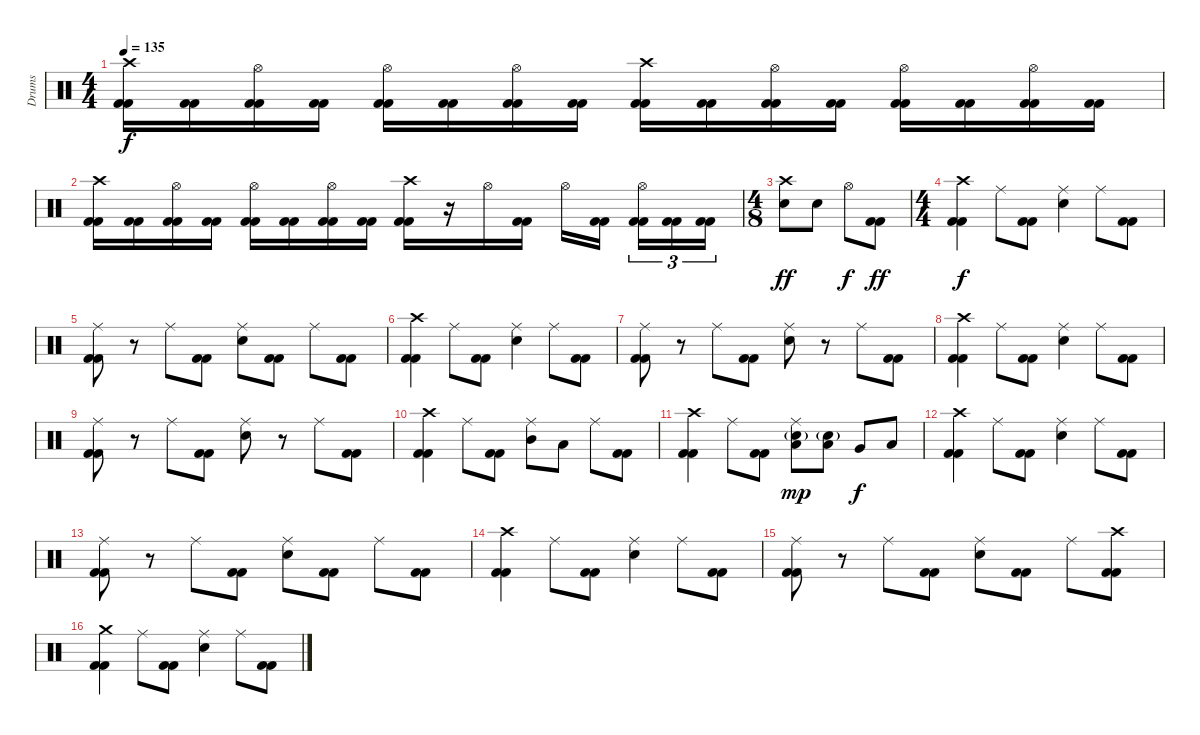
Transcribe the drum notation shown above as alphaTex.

\track ("Drums" "Drums") {instrument percussion}
\staff {score}
\articulation defaults
\ts (4 4)
\tempo 135
\clef neutral
\ks c
("Crash high (hit)" "Kick (hit) 2" "Kick (hit) 2").16{dy f} ("Kick (hit) 2" "Kick (hit) 2").16 ("Hi-Hat (open)" "Kick (hit) 2" "Kick (hit) 2").16 ("Kick (hit) 2" "Kick (hit) 2").16 ("Hi-Hat (open)" "Kick (hit) 2" "Kick (hit) 2").16 ("Kick (hit) 2" "Kick (hit) 2").16 ("Hi-Hat (open)" "Kick (hit) 2" "Kick (hit) 2").16 ("Kick (hit) 2" "Kick (hit) 2").16 ("Crash high (hit)" "Kick (hit) 2" "Kick (hit) 2").16 ("Kick (hit) 2" "Kick (hit) 2").16 ("Hi-Hat (open)" "Kick (hit) 2" "Kick (hit) 2").16 ("Kick (hit) 2" "Kick (hit) 2").16 ("Hi-Hat (open)" "Kick (hit) 2" "Kick (hit) 2").16 ("Kick (hit) 2" "Kick (hit) 2").16 ("Hi-Hat (open)" "Kick (hit) 2" "Kick (hit) 2").16 ("Kick (hit) 2" "Kick (hit) 2").16 |
("Crash high (hit)" "Kick (hit) 2" "Kick (hit) 2").16 ("Kick (hit) 2" "Kick (hit) 2").16 ("Hi-Hat (open)" "Kick (hit) 2" "Kick (hit) 2").16 ("Kick (hit) 2" "Kick (hit) 2").16 ("Hi-Hat (open)" "Kick (hit) 2" "Kick (hit) 2").16 ("Kick (hit) 2" "Kick (hit) 2").16 ("Hi-Hat (open)" "Kick (hit) 2" "Kick (hit) 2").16 ("Kick (hit) 2" "Kick (hit) 2").16 ("Crash high (hit)" "Kick (hit) 2" "Kick (hit) 2").16 r.16 "Hi-Hat (open)".16 ("Kick (hit) 2" "Kick (hit) 2").16 "Hi-Hat (open)".16 ("Kick (hit) 2" "Kick (hit) 2").16{beam splitsecondary} ("Hi-Hat (open)" "Kick (hit) 2" "Kick (hit) 2").16{tu (3 2)} ("Kick (hit) 2" "Kick (hit) 2").16{tu (3 2)} ("Kick (hit) 2" "Kick (hit) 2").16{tu (3 2)} |
\ts (4 8)
("Crash high (hit)" "Electric Snare (hit)").8{dy ff} "Electric Snare (hit)".8 "Hi-Hat (open)".8{dy f} ("Kick (hit) 2" "Kick (hit) 2").8{dy ff} |
\ts (4 4)
("Crash high (hit)" "Kick (hit) 2" "Kick (hit) 2").4{dy f} "Ride (middle)".8 ("Kick (hit) 2" "Kick (hit) 2").8 ("Ride (middle)" "Electric Snare (hit)").4 "Ride (middle)".8 ("Kick (hit) 2" "Kick (hit) 2").8 |
("Ride (middle)" "Kick (hit) 2" "Kick (hit) 2").8 r.8 "Ride (middle)".8 ("Kick (hit) 2" "Kick (hit) 2").8 ("Ride (middle)" "Electric Snare (hit)").8 ("Kick (hit) 2" "Kick (hit) 2").8 "Ride (middle)".8 ("Kick (hit) 2" "Kick (hit) 2").8 |
("Crash high (hit)" "Kick (hit) 2" "Kick (hit) 2").4 "Ride (middle)".8 ("Kick (hit) 2" "Kick (hit) 2").8 ("Ride (middle)" "Electric Snare (hit)").4 "Ride (middle)".8 ("Kick (hit) 2" "Kick (hit) 2").8 |
("Ride (middle)" "Kick (hit) 2" "Kick (hit) 2").8 r.8 "Ride (middle)".8 ("Kick (hit) 2" "Kick (hit) 2").8 ("Ride (middle)" "Electric Snare (hit)").8 r.8 "Ride (middle)".8 ("Kick (hit) 2" "Kick (hit) 2").8 |
("Crash high (hit)" "Kick (hit) 2" "Kick (hit) 2").4 "Ride (middle)".8 ("Kick (hit) 2" "Kick (hit) 2").8 ("Ride (middle)" "Electric Snare (hit)").4 "Ride (middle)".8 ("Kick (hit) 2" "Kick (hit) 2").8 |
("Ride (middle)" "Kick (hit) 2" "Kick (hit) 2").8 r.8 "Ride (middle)".8 ("Kick (hit) 2" "Kick (hit) 2").8 ("Ride (middle)" "Electric Snare (hit)").8 r.8 "Ride (middle)".8 ("Kick (hit) 2" "Kick (hit) 2").8 |
("Crash high (hit)" "Kick (hit) 2" "Kick (hit) 2").4 "Ride (middle)".8 ("Kick (hit) 2" "Kick (hit) 2").8 ("Ride (middle)" "Mid Tom (hit)").8 "Low Tom (hit)".8 "Ride (middle)".8 ("Kick (hit) 2" "Kick (hit) 2").8 |
("Crash high (hit)" "Kick (hit) 2" "Kick (hit) 2").4 "Ride (middle)".8 ("Kick (hit) 2" "Kick (hit) 2").8 ("Ride (middle)" "Electric Snare (hit)"{g} "Low Tom (hit)").8{dy mp} ("Electric Snare (hit)"{g} "Low Tom (hit)").8 "Very Low Tom (hit)".8{dy f} "Low Floor Tom (hit)".8 |
("Crash high (hit)" "Kick (hit) 2" "Kick (hit) 2").4 "Ride (middle)".8 ("Kick (hit) 2" "Kick (hit) 2").8 ("Ride (middle)" "Electric Snare (hit)").4 "Ride (middle)".8 ("Kick (hit) 2" "Kick (hit) 2").8 |
("Ride (middle)" "Kick (hit) 2" "Kick (hit) 2").8 r.8 "Ride (middle)".8 ("Kick (hit) 2" "Kick (hit) 2").8 ("Ride (middle)" "Electric Snare (hit)").8 ("Kick (hit) 2" "Kick (hit) 2").8 "Ride (middle)".8 ("Kick (hit) 2" "Kick (hit) 2").8 |
("Crash high (hit)" "Kick (hit) 2" "Kick (hit) 2").4 "Ride (middle)".8 ("Kick (hit) 2" "Kick (hit) 2").8 ("Ride (middle)" "Electric Snare (hit)").4 "Ride (middle)".8 ("Kick (hit) 2" "Kick (hit) 2").8 |
("Ride (middle)" "Kick (hit) 2" "Kick (hit) 2").8 r.8 "Ride (middle)".8 ("Kick (hit) 2" "Kick (hit) 2").8 ("Ride (middle)" "Electric Snare (hit)").8 ("Kick (hit) 2" "Kick (hit) 2").8 "Ride (middle)".8 ("Crash high (hit)" "Kick (hit) 2" "Kick (hit) 2").8 |
("Crash medium (hit)" "Kick (hit) 2" "Kick (hit) 2").4 "Ride (middle)".8 ("Kick (hit) 2" "Kick (hit) 2").8 ("Ride (middle)" "Electric Snare (hit)").4 "Ride (middle)".8 ("Kick (hit) 2" "Kick (hit) 2").8
